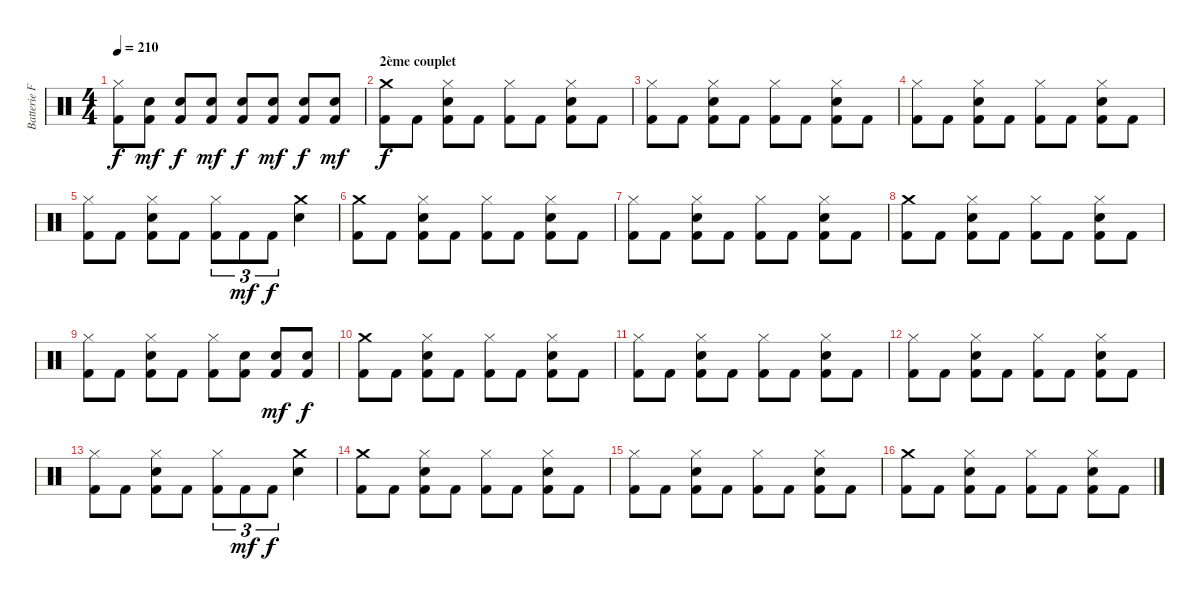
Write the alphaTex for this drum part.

\track ("Batterie Franck" "Batterie F") {instrument percussion}
\staff {score}
\articulation defaults
\ts (4 4)
\tempo 210
\clef neutral
\ks c
("Hi-Hat (closed)" "Kick (hit) 2").8{dy f} ("Snare (hit) 2" "Kick (hit) 2").8{dy mf} ("Snare (hit) 2" "Kick (hit) 2").8{dy f} ("Snare (hit) 2" "Kick (hit) 2").8{dy mf} ("Snare (hit) 2" "Kick (hit) 2").8{dy f} ("Snare (hit) 2" "Kick (hit) 2").8{dy mf} ("Snare (hit) 2" "Kick (hit) 2").8{dy f} ("Snare (hit) 2" "Kick (hit) 2").8{dy mf} |
\section ("" "2ème couplet")
("Crash medium (hit)" "Kick (hit) 2").8{dy f} "Kick (hit) 2".8 ("Hi-Hat (closed)" "Snare (hit) 2" "Kick (hit) 2").8 "Kick (hit) 2".8 ("Hi-Hat (closed)" "Kick (hit) 2").8 "Kick (hit) 2".8 ("Hi-Hat (closed)" "Snare (hit) 2" "Kick (hit) 2").8 "Kick (hit) 2".8 |
("Hi-Hat (closed)" "Kick (hit) 2").8 "Kick (hit) 2".8 ("Hi-Hat (closed)" "Snare (hit) 2" "Kick (hit) 2").8 "Kick (hit) 2".8 ("Hi-Hat (closed)" "Kick (hit) 2").8 "Kick (hit) 2".8 ("Hi-Hat (closed)" "Snare (hit) 2" "Kick (hit) 2").8 "Kick (hit) 2".8 |
("Hi-Hat (closed)" "Kick (hit) 2").8 "Kick (hit) 2".8 ("Hi-Hat (closed)" "Snare (hit) 2" "Kick (hit) 2").8 "Kick (hit) 2".8 ("Hi-Hat (closed)" "Kick (hit) 2").8 "Kick (hit) 2".8 ("Hi-Hat (closed)" "Snare (hit) 2" "Kick (hit) 2").8 "Kick (hit) 2".8 |
("Hi-Hat (closed)" "Kick (hit) 2").8 "Kick (hit) 2".8 ("Hi-Hat (closed)" "Snare (hit) 2" "Kick (hit) 2").8 "Kick (hit) 2".8 ("Hi-Hat (closed)" "Kick (hit) 2").8{tu (3 2)} "Kick (hit) 2".8{tu (3 2) dy mf} "Kick (hit) 2".8{tu (3 2) dy f} ("Crash medium (hit)" "Snare (hit) 2").4 |
("Crash medium (hit)" "Kick (hit) 2").8 "Kick (hit) 2".8 ("Hi-Hat (closed)" "Snare (hit) 2" "Kick (hit) 2").8 "Kick (hit) 2".8 ("Hi-Hat (closed)" "Kick (hit) 2").8 "Kick (hit) 2".8 ("Hi-Hat (closed)" "Snare (hit) 2" "Kick (hit) 2").8 "Kick (hit) 2".8 |
("Hi-Hat (closed)" "Kick (hit) 2").8 "Kick (hit) 2".8 ("Hi-Hat (closed)" "Snare (hit) 2" "Kick (hit) 2").8 "Kick (hit) 2".8 ("Hi-Hat (closed)" "Kick (hit) 2").8 "Kick (hit) 2".8 ("Hi-Hat (closed)" "Snare (hit) 2" "Kick (hit) 2").8 "Kick (hit) 2".8 |
("Crash medium (hit)" "Kick (hit) 2").8 "Kick (hit) 2".8 ("Hi-Hat (closed)" "Snare (hit) 2" "Kick (hit) 2").8 "Kick (hit) 2".8 ("Hi-Hat (closed)" "Kick (hit) 2").8 "Kick (hit) 2".8 ("Hi-Hat (closed)" "Snare (hit) 2" "Kick (hit) 2").8 "Kick (hit) 2".8 |
("Hi-Hat (closed)" "Kick (hit) 2").8 "Kick (hit) 2".8 ("Hi-Hat (closed)" "Snare (hit) 2" "Kick (hit) 2").8 "Kick (hit) 2".8 ("Hi-Hat (closed)" "Kick (hit) 2").8 ("Snare (hit) 2" "Kick (hit) 2").8 ("Snare (hit) 2" "Kick (hit) 2").8{dy mf} ("Snare (hit) 2" "Kick (hit) 2").8{dy f} |
("Crash medium (hit)" "Kick (hit) 2").8 "Kick (hit) 2".8 ("Hi-Hat (closed)" "Snare (hit) 2" "Kick (hit) 2").8 "Kick (hit) 2".8 ("Hi-Hat (closed)" "Kick (hit) 2").8 "Kick (hit) 2".8 ("Hi-Hat (closed)" "Snare (hit) 2" "Kick (hit) 2").8 "Kick (hit) 2".8 |
("Hi-Hat (closed)" "Kick (hit) 2").8 "Kick (hit) 2".8 ("Hi-Hat (closed)" "Snare (hit) 2" "Kick (hit) 2").8 "Kick (hit) 2".8 ("Hi-Hat (closed)" "Kick (hit) 2").8 "Kick (hit) 2".8 ("Hi-Hat (closed)" "Snare (hit) 2" "Kick (hit) 2").8 "Kick (hit) 2".8 |
("Hi-Hat (closed)" "Kick (hit) 2").8 "Kick (hit) 2".8 ("Hi-Hat (closed)" "Snare (hit) 2" "Kick (hit) 2").8 "Kick (hit) 2".8 ("Hi-Hat (closed)" "Kick (hit) 2").8 "Kick (hit) 2".8 ("Hi-Hat (closed)" "Snare (hit) 2" "Kick (hit) 2").8 "Kick (hit) 2".8 |
("Hi-Hat (closed)" "Kick (hit) 2").8 "Kick (hit) 2".8 ("Hi-Hat (closed)" "Snare (hit) 2" "Kick (hit) 2").8 "Kick (hit) 2".8 ("Hi-Hat (closed)" "Kick (hit) 2").8{tu (3 2)} "Kick (hit) 2".8{tu (3 2) dy mf} "Kick (hit) 2".8{tu (3 2) dy f} ("Crash medium (hit)" "Snare (hit) 2").4 |
("Crash medium (hit)" "Kick (hit) 2").8 "Kick (hit) 2".8 ("Hi-Hat (closed)" "Snare (hit) 2" "Kick (hit) 2").8 "Kick (hit) 2".8 ("Hi-Hat (closed)" "Kick (hit) 2").8 "Kick (hit) 2".8 ("Hi-Hat (closed)" "Snare (hit) 2" "Kick (hit) 2").8 "Kick (hit) 2".8 |
("Hi-Hat (closed)" "Kick (hit) 2").8 "Kick (hit) 2".8 ("Hi-Hat (closed)" "Snare (hit) 2" "Kick (hit) 2").8 "Kick (hit) 2".8 ("Hi-Hat (closed)" "Kick (hit) 2").8 "Kick (hit) 2".8 ("Hi-Hat (closed)" "Snare (hit) 2" "Kick (hit) 2").8 "Kick (hit) 2".8 |
("Crash medium (hit)" "Kick (hit) 2").8 "Kick (hit) 2".8 ("Hi-Hat (closed)" "Snare (hit) 2" "Kick (hit) 2").8 "Kick (hit) 2".8 ("Hi-Hat (closed)" "Kick (hit) 2").8 "Kick (hit) 2".8 ("Hi-Hat (closed)" "Snare (hit) 2" "Kick (hit) 2").8 "Kick (hit) 2".8
